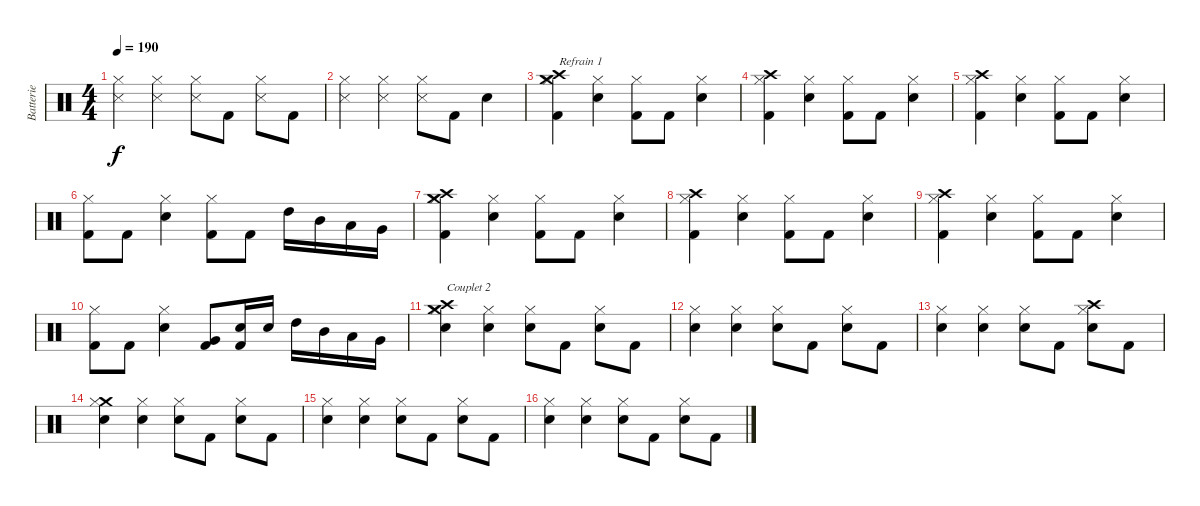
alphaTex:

\track ("Batterie" "Batterie") {instrument percussion}
\staff {score}
\articulation defaults
\ts (4 4)
\tempo 190
\clef neutral
\ks c
("Snare (side stick) 3" "Hi-Hat (closed)").4{dy f} ("Snare (side stick) 3" "Hi-Hat (closed)").4 ("Snare (side stick) 3" "Hi-Hat (closed)").8 "Kick (hit) 2".8 ("Snare (side stick) 3" "Hi-Hat (closed)").8 "Kick (hit) 2".8 |
("Snare (side stick) 3" "Hi-Hat (closed)").4 ("Snare (side stick) 3" "Hi-Hat (closed)").4 ("Snare (side stick) 3" "Hi-Hat (closed)").8 "Kick (hit) 2".8 "Electric Snare (hit)".4 |
("Crash medium (hit)" "Crash high (hit)" "Hi-Hat (closed)" "Kick (hit) 2").4{txt "Refrain 1"} ("Electric Snare (hit)" "Hi-Hat (closed)").4 ("Hi-Hat (closed)" "Kick (hit) 2").8 "Kick (hit) 2".8 ("Electric Snare (hit)" "Hi-Hat (closed)").4 |
("Crash high (hit)" "Hi-Hat (closed)" "Kick (hit) 2").4 ("Electric Snare (hit)" "Hi-Hat (closed)").4 ("Hi-Hat (closed)" "Kick (hit) 2").8 "Kick (hit) 2".8 ("Electric Snare (hit)" "Hi-Hat (closed)").4 |
("Crash high (hit)" "Hi-Hat (closed)" "Kick (hit) 2").4 ("Electric Snare (hit)" "Hi-Hat (closed)").4 ("Hi-Hat (closed)" "Kick (hit) 2").8 "Kick (hit) 2".8 ("Electric Snare (hit)" "Hi-Hat (closed)").4 |
("Hi-Hat (closed)" "Kick (hit) 2").8 "Kick (hit) 2".8 ("Electric Snare (hit)" "Hi-Hat (closed)").4 ("Hi-Hat (closed)" "Kick (hit) 2").8 "Kick (hit) 2".8 "High Tom (hit)".16 "Mid Tom (hit)".16 "Low Tom (hit)".16 "Very Low Tom (hit)".16 |
("Crash medium (hit)" "Crash high (hit)" "Hi-Hat (closed)" "Kick (hit) 2").4 ("Electric Snare (hit)" "Hi-Hat (closed)").4 ("Hi-Hat (closed)" "Kick (hit) 2").8 "Kick (hit) 2".8 ("Electric Snare (hit)" "Hi-Hat (closed)").4 |
("Crash high (hit)" "Hi-Hat (closed)" "Kick (hit) 2").4 ("Electric Snare (hit)" "Hi-Hat (closed)").4 ("Hi-Hat (closed)" "Kick (hit) 2").8 "Kick (hit) 2".8 ("Electric Snare (hit)" "Hi-Hat (closed)").4 |
("Crash high (hit)" "Hi-Hat (closed)" "Kick (hit) 2").4 ("Electric Snare (hit)" "Hi-Hat (closed)").4 ("Hi-Hat (closed)" "Kick (hit) 2").8 "Kick (hit) 2".8 ("Electric Snare (hit)" "Hi-Hat (closed)").4 |
("Hi-Hat (closed)" "Kick (hit) 2").8 "Kick (hit) 2".8 ("Electric Snare (hit)" "Hi-Hat (closed)").4 ("Very Low Tom (hit)" "Kick (hit) 2").8 ("Electric Snare (hit)" "Kick (hit) 2").16 "Electric Snare (hit)".16 "High Tom (hit)".16 "Mid Tom (hit)".16 "Low Tom (hit)".16 "Very Low Tom (hit)".16 |
("Crash medium (hit)" "Crash high (hit)" "Electric Snare (hit)" "Hi-Hat (closed)").4{txt "Couplet 2"} ("Electric Snare (hit)" "Hi-Hat (closed)").4 ("Electric Snare (hit)" "Hi-Hat (closed)").8 "Kick (hit) 2".8 ("Electric Snare (hit)" "Hi-Hat (closed)").8 "Kick (hit) 2".8 |
("Electric Snare (hit)" "Hi-Hat (closed)").4 ("Electric Snare (hit)" "Hi-Hat (closed)").4 ("Electric Snare (hit)" "Hi-Hat (closed)").8 "Kick (hit) 2".8 ("Electric Snare (hit)" "Hi-Hat (closed)").8 "Kick (hit) 2".8 |
("Electric Snare (hit)" "Hi-Hat (closed)").4 ("Electric Snare (hit)" "Hi-Hat (closed)").4 ("Electric Snare (hit)" "Hi-Hat (closed)").8 "Kick (hit) 2".8 ("Crash high (hit)" "Electric Snare (hit)" "Hi-Hat (closed)").8 "Kick (hit) 2".8 |
("Crash medium (hit)" "Electric Snare (hit)" "Hi-Hat (closed)").4 ("Electric Snare (hit)" "Hi-Hat (closed)").4 ("Electric Snare (hit)" "Hi-Hat (closed)").8 "Kick (hit) 2".8 ("Electric Snare (hit)" "Hi-Hat (closed)").8 "Kick (hit) 2".8 |
("Electric Snare (hit)" "Hi-Hat (closed)").4 ("Electric Snare (hit)" "Hi-Hat (closed)").4 ("Electric Snare (hit)" "Hi-Hat (closed)").8 "Kick (hit) 2".8 ("Electric Snare (hit)" "Hi-Hat (closed)").8 "Kick (hit) 2".8 |
("Electric Snare (hit)" "Hi-Hat (closed)").4 ("Electric Snare (hit)" "Hi-Hat (closed)").4 ("Electric Snare (hit)" "Hi-Hat (closed)").8 "Kick (hit) 2".8 ("Electric Snare (hit)" "Hi-Hat (closed)").8 "Kick (hit) 2".8
